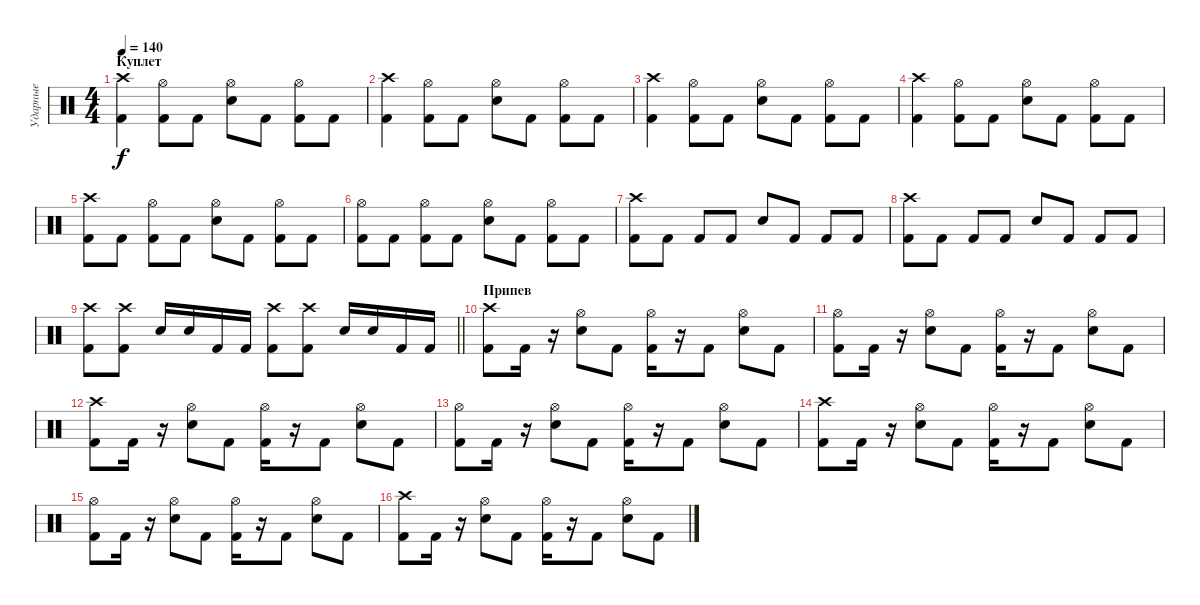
\track ("Ударные" "Ударные") {instrument percussion}
\staff {score}
\articulation defaults
\ts (4 4)
\section ("" "Куплет")
\tempo 140
\clef neutral
\ks c
("Crash high (hit)" "Kick (hit) 2").4{dy f} ("Hi-Hat (open)" "Kick (hit) 2").8 "Kick (hit) 2".8 ("Hi-Hat (open)" "Electric Snare (hit)").8 "Kick (hit) 2".8 ("Hi-Hat (open)" "Kick (hit) 2").8 "Kick (hit) 2".8 |
("Crash high (hit)" "Kick (hit) 2").4 ("Hi-Hat (open)" "Kick (hit) 2").8 "Kick (hit) 2".8 ("Hi-Hat (open)" "Electric Snare (hit)").8 "Kick (hit) 2".8 ("Hi-Hat (open)" "Kick (hit) 2").8 "Kick (hit) 2".8 |
("Crash high (hit)" "Kick (hit) 2").4 ("Hi-Hat (open)" "Kick (hit) 2").8 "Kick (hit) 2".8 ("Hi-Hat (open)" "Electric Snare (hit)").8 "Kick (hit) 2".8 ("Hi-Hat (open)" "Kick (hit) 2").8 "Kick (hit) 2".8 |
("Crash high (hit)" "Kick (hit) 2").4 ("Hi-Hat (open)" "Kick (hit) 2").8 "Kick (hit) 2".8 ("Hi-Hat (open)" "Electric Snare (hit)").8 "Kick (hit) 2".8 ("Hi-Hat (open)" "Kick (hit) 2").8 "Kick (hit) 2".8 |
("Crash high (hit)" "Kick (hit) 2").8 "Kick (hit) 2".8 ("Hi-Hat (open)" "Kick (hit) 2").8 "Kick (hit) 2".8 ("Hi-Hat (open)" "Electric Snare (hit)").8 "Kick (hit) 2".8 ("Hi-Hat (open)" "Kick (hit) 2").8 "Kick (hit) 2".8 |
("Hi-Hat (open)" "Kick (hit) 2").8 "Kick (hit) 2".8 ("Hi-Hat (open)" "Kick (hit) 2").8 "Kick (hit) 2".8 ("Hi-Hat (open)" "Electric Snare (hit)").8 "Kick (hit) 2".8 ("Hi-Hat (open)" "Kick (hit) 2").8 "Kick (hit) 2".8 |
("Crash high (hit)" "Kick (hit) 2").8 "Kick (hit) 2".8 "Kick (hit) 2".8 "Kick (hit) 2".8 "Electric Snare (hit)".8 "Kick (hit) 2".8 "Kick (hit) 2".8 "Kick (hit) 2".8 |
("Crash high (hit)" "Kick (hit) 2").8 "Kick (hit) 2".8 "Kick (hit) 2".8 "Kick (hit) 2".8 "Electric Snare (hit)".8 "Kick (hit) 2".8 "Kick (hit) 2".8 "Kick (hit) 2".8 |
\barLineRight lightlight
("Crash high (hit)" "Kick (hit) 2").8 ("Crash high (hit)" "Kick (hit) 2").8 "Electric Snare (hit)".16 "Electric Snare (hit)".16 "Kick (hit) 2".16 "Kick (hit) 2".16 ("Crash high (hit)" "Kick (hit) 2").8 ("Crash high (hit)" "Kick (hit) 2").8 "Electric Snare (hit)".16 "Electric Snare (hit)".16 "Kick (hit) 2".16 "Kick (hit) 2".16 |
\section ("" "Припев")
("Crash high (hit)" "Kick (hit) 2").8 "Kick (hit) 2".16 r.16 ("Hi-Hat (open)" "Electric Snare (hit)").8 "Kick (hit) 2".8 ("Hi-Hat (open)" "Kick (hit) 2").16 r.16 "Kick (hit) 2".8 ("Hi-Hat (open)" "Electric Snare (hit)").8 "Kick (hit) 2".8 |
("Hi-Hat (open)" "Kick (hit) 2").8 "Kick (hit) 2".16 r.16 ("Hi-Hat (open)" "Electric Snare (hit)").8 "Kick (hit) 2".8 ("Hi-Hat (open)" "Kick (hit) 2").16 r.16 "Kick (hit) 2".8 ("Hi-Hat (open)" "Electric Snare (hit)").8 "Kick (hit) 2".8 |
("Crash high (hit)" "Kick (hit) 2").8 "Kick (hit) 2".16 r.16 ("Hi-Hat (open)" "Electric Snare (hit)").8 "Kick (hit) 2".8 ("Hi-Hat (open)" "Kick (hit) 2").16 r.16 "Kick (hit) 2".8 ("Hi-Hat (open)" "Electric Snare (hit)").8 "Kick (hit) 2".8 |
("Hi-Hat (open)" "Kick (hit) 2").8 "Kick (hit) 2".16 r.16 ("Hi-Hat (open)" "Electric Snare (hit)").8 "Kick (hit) 2".8 ("Hi-Hat (open)" "Kick (hit) 2").16 r.16 "Kick (hit) 2".8 ("Hi-Hat (open)" "Electric Snare (hit)").8 "Kick (hit) 2".8 |
("Crash high (hit)" "Kick (hit) 2").8 "Kick (hit) 2".16 r.16 ("Hi-Hat (open)" "Electric Snare (hit)").8 "Kick (hit) 2".8 ("Hi-Hat (open)" "Kick (hit) 2").16 r.16 "Kick (hit) 2".8 ("Hi-Hat (open)" "Electric Snare (hit)").8 "Kick (hit) 2".8 |
("Hi-Hat (open)" "Kick (hit) 2").8 "Kick (hit) 2".16 r.16 ("Hi-Hat (open)" "Electric Snare (hit)").8 "Kick (hit) 2".8 ("Hi-Hat (open)" "Kick (hit) 2").16 r.16 "Kick (hit) 2".8 ("Hi-Hat (open)" "Electric Snare (hit)").8 "Kick (hit) 2".8 |
("Crash high (hit)" "Kick (hit) 2").8 "Kick (hit) 2".16 r.16 ("Hi-Hat (open)" "Electric Snare (hit)").8 "Kick (hit) 2".8 ("Hi-Hat (open)" "Kick (hit) 2").16 r.16 "Kick (hit) 2".8 ("Hi-Hat (open)" "Electric Snare (hit)").8 "Kick (hit) 2".8
